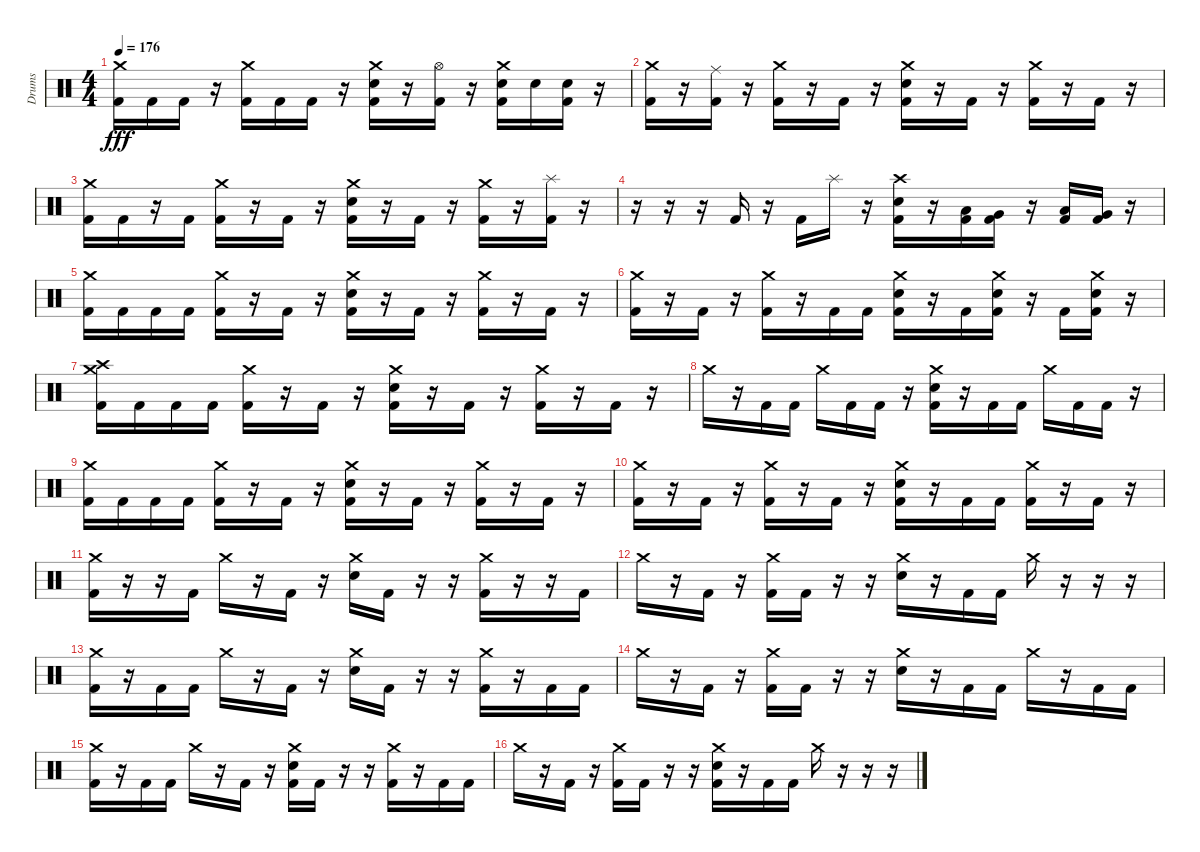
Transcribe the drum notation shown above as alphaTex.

\track ("Drums" "Drums") {instrument percussion}
\staff {score}
\articulation defaults
\ts (4 4)
\tempo 176
\clef neutral
\ks c
("Crash medium (hit)" "Kick (hit) 2").16{dy fff} "Kick (hit) 2".16 "Kick (hit) 2".16 r.16 ("Crash medium (hit)" "Kick (hit) 2").16 "Kick (hit) 2".16 "Kick (hit) 2".16 r.16 ("Crash medium (hit)" "Kick (hit) 2" "Electric Snare (hit)").16 r.16 ("Kick (hit) 2" "Hi-Hat (open)").16 r.16 ("Crash medium (hit)" "Snare (hit) 2" "Kick (hit) 2").16 "Snare (hit) 2".16 ("Snare (hit) 2" "Kick (hit) 2").16 r.16 |
("Crash medium (hit)" "Kick (hit) 2").16 r.16 ("Ride (middle)" "Kick (hit) 2").16 r.16 ("Crash medium (hit)" "Kick (hit) 2").16 r.16 "Kick (hit) 2".16 r.16 ("Crash medium (hit)" "Kick (hit) 2" "Electric Snare (hit)").16 r.16 "Kick (hit) 2".16 r.16 ("Crash medium (hit)" "Kick (hit) 2").16 r.16 "Kick (hit) 2".16 r.16 |
("Crash medium (hit)" "Kick (hit) 2").16 "Kick (hit) 2".16 r.16 "Kick (hit) 2".16 ("Crash medium (hit)" "Kick (hit) 2").16 r.16 "Kick (hit) 2".16 r.16 ("Crash medium (hit)" "Kick (hit) 2" "Electric Snare (hit)").16 r.16 "Kick (hit) 2".16 r.16 ("Crash medium (hit)" "Kick (hit) 2").16 r.16 ("Kick (hit) 2" "Splash (hit)").16 r.16 |
r.16 r.16 r.16 "Kick (hit) 2".16 r.16 "Kick (hit) 2".16 "Splash (hit)".16 r.16 ("Crash high (hit)" "Kick (hit) 2" "Electric Snare (hit)").16 r.16 ("Kick (hit) 2" "Low Tom (hit)").16 ("Very Low Tom (hit)" "Kick (hit) 2").16 r.16 ("Kick (hit) 2" "Low Tom (hit)").16 ("Very Low Tom (hit)" "Kick (hit) 2").16 r.16 |
("Crash medium (hit)" "Kick (hit) 2").16 "Kick (hit) 2".16 "Kick (hit) 2".16 "Kick (hit) 2".16 ("Crash medium (hit)" "Kick (hit) 2").16 r.16 "Kick (hit) 2".16 r.16 ("Crash medium (hit)" "Kick (hit) 2" "Electric Snare (hit)").16 r.16 "Kick (hit) 2".16 r.16 ("Crash medium (hit)" "Kick (hit) 2").16 r.16 "Kick (hit) 2".16 r.16 |
("Kick (hit) 2" "Crash medium (hit)").16 r.16 "Kick (hit) 2".16 r.16 ("Kick (hit) 2" "Crash medium (hit)").16 r.16 "Kick (hit) 2".16 "Kick (hit) 2".16 ("Kick (hit) 2" "Crash medium (hit)" "Electric Snare (hit)").16 r.16 "Kick (hit) 2".16 ("Kick (hit) 2" "Crash medium (hit)" "Electric Snare (hit)").16 r.16 "Kick (hit) 2".16 ("Kick (hit) 2" "Crash medium (hit)" "Electric Snare (hit)").16 r.16 |
("Kick (hit) 2" "Crash high (hit)" "Crash medium (hit)").16 "Kick (hit) 2".16 "Kick (hit) 2".16 "Kick (hit) 2".16 ("Kick (hit) 2" "Crash medium (hit)").16 r.16 "Kick (hit) 2".16 r.16 ("Kick (hit) 2" "Crash medium (hit)" "Electric Snare (hit)").16 r.16 "Kick (hit) 2".16 r.16 ("Kick (hit) 2" "Crash medium (hit)").16 r.16 "Kick (hit) 2".16 r.16 |
"Crash medium (hit)".16 r.16 "Kick (hit) 2".16 "Kick (hit) 2".16 "Crash medium (hit)".16 "Kick (hit) 2".16 "Kick (hit) 2".16 r.16 ("Kick (hit) 2" "Crash medium (hit)" "Electric Snare (hit)").16 r.16 "Kick (hit) 2".16 "Kick (hit) 2".16 "Crash medium (hit)".16 "Kick (hit) 2".16 "Kick (hit) 2".16 r.16 |
("Kick (hit) 2" "Crash medium (hit)").16 "Kick (hit) 2".16 "Kick (hit) 2".16 "Kick (hit) 2".16 ("Kick (hit) 2" "Crash medium (hit)").16 r.16 "Kick (hit) 2".16 r.16 ("Kick (hit) 2" "Crash medium (hit)" "Electric Snare (hit)").16 r.16 "Kick (hit) 2".16 r.16 ("Kick (hit) 2" "Crash medium (hit)").16 r.16 "Kick (hit) 2".16 r.16 |
("Crash medium (hit)" "Kick (hit) 2").16 r.16 "Kick (hit) 2".16 r.16 ("Crash medium (hit)" "Kick (hit) 2").16 r.16 "Kick (hit) 2".16 r.16 ("Crash medium (hit)" "Kick (hit) 2" "Electric Snare (hit)").16 r.16 "Kick (hit) 2".16 "Kick (hit) 2".16 ("Crash medium (hit)" "Kick (hit) 2").16 r.16 "Kick (hit) 2".16 r.16 |
("Kick (hit) 2" "Crash medium (hit)").16 r.16 r.16 "Kick (hit) 2".16 "Crash medium (hit)".16 r.16 "Kick (hit) 2".16 r.16 ("Crash medium (hit)" "Electric Snare (hit)").16 "Kick (hit) 2".16 r.16 r.16 ("Kick (hit) 2" "Crash medium (hit)").16 r.16 r.16 "Kick (hit) 2".16 |
"Crash medium (hit)".16 r.16 "Kick (hit) 2".16 r.16 ("Crash medium (hit)" "Kick (hit) 2").16 "Kick (hit) 2".16 r.16 r.16 ("Crash medium (hit)" "Electric Snare (hit)").16 r.16 "Kick (hit) 2".16 "Kick (hit) 2".16 "Crash medium (hit)".16 r.16 r.16 r.16 |
("Kick (hit) 2" "Crash medium (hit)").16 r.16 "Kick (hit) 2".16 "Kick (hit) 2".16 "Crash medium (hit)".16 r.16 "Kick (hit) 2".16 r.16 ("Crash medium (hit)" "Electric Snare (hit)").16 "Kick (hit) 2".16 r.16 r.16 ("Crash medium (hit)" "Kick (hit) 2").16 r.16 "Kick (hit) 2".16 "Kick (hit) 2".16 |
"Crash medium (hit)".16 r.16 "Kick (hit) 2".16 r.16 ("Crash medium (hit)" "Kick (hit) 2").16 "Kick (hit) 2".16 r.16 r.16 ("Crash medium (hit)" "Electric Snare (hit)").16 r.16 "Kick (hit) 2".16 "Kick (hit) 2".16 "Crash medium (hit)".16 r.16 "Kick (hit) 2".16 "Kick (hit) 2".16 |
("Crash medium (hit)" "Kick (hit) 2").16 r.16 "Kick (hit) 2".16 "Kick (hit) 2".16 "Crash medium (hit)".16 r.16 "Kick (hit) 2".16 r.16 ("Crash medium (hit)" "Kick (hit) 2" "Electric Snare (hit)").16 "Kick (hit) 2".16 r.16 r.16 ("Crash medium (hit)" "Kick (hit) 2").16 r.16 "Kick (hit) 2".16 "Kick (hit) 2".16 |
"Crash medium (hit)".16 r.16 "Kick (hit) 2".16 r.16 ("Crash medium (hit)" "Kick (hit) 2").16 "Kick (hit) 2".16 r.16 r.16 ("Crash medium (hit)" "Kick (hit) 2" "Electric Snare (hit)").16 r.16 "Kick (hit) 2".16 "Kick (hit) 2".16 "Crash medium (hit)".16 r.16 r.16 r.16
